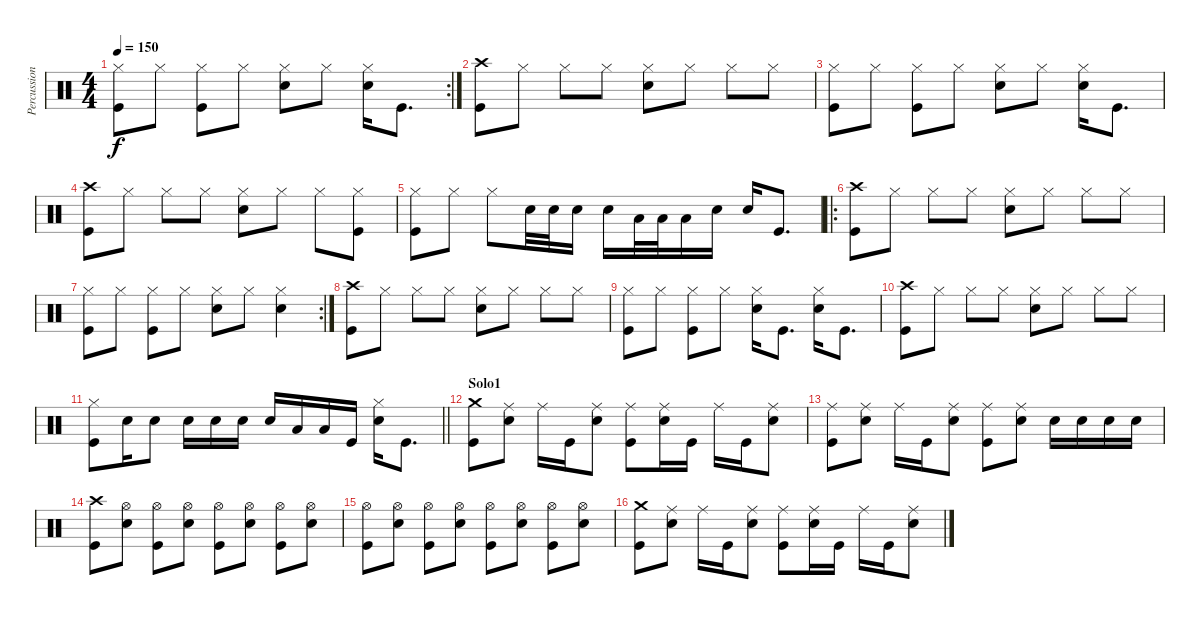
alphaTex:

\track ("Percussion" "Percussion") {instrument percussion}
\staff {score}
\articulation defaults
\rc 2
\ts (4 4)
\tempo 150
\clef neutral
\ks c
("Hi-Hat (closed)" "Kick (hit)").8{dy f} "Hi-Hat (closed)".8 ("Hi-Hat (closed)" "Kick (hit)").8 "Hi-Hat (closed)".8 ("Hi-Hat (closed)" "Snare (hit) 2").8 "Hi-Hat (closed)".8 ("Hi-Hat (closed)" "Snare (hit) 2").16 "Kick (hit)".8{d} |
("Crash high (hit)" "Kick (hit)").8 "Hi-Hat (closed)".8 "Hi-Hat (closed)".8 "Hi-Hat (closed)".8 ("Hi-Hat (closed)" "Snare (hit) 2").8 "Hi-Hat (closed)".8 "Hi-Hat (closed)".8 "Hi-Hat (closed)".8 |
("Hi-Hat (closed)" "Kick (hit)").8 "Hi-Hat (closed)".8 ("Hi-Hat (closed)" "Kick (hit)").8 "Hi-Hat (closed)".8 ("Hi-Hat (closed)" "Snare (hit) 2").8 "Hi-Hat (closed)".8 ("Hi-Hat (closed)" "Snare (hit) 2").16 "Kick (hit)".8{d} |
("Crash high (hit)" "Kick (hit)").8 "Hi-Hat (closed)".8 "Hi-Hat (closed)".8 "Hi-Hat (closed)".8 ("Hi-Hat (closed)" "Snare (hit) 2").8 "Hi-Hat (closed)".8 "Hi-Hat (closed)".8 ("Hi-Hat (closed)" "Kick (hit)").8 |
("Hi-Hat (closed)" "Kick (hit)").8 "Hi-Hat (closed)".8 "Hi-Hat (closed)".8 "Snare (hit) 2".32 "Snare (hit) 2".32 "Snare (hit) 2".16 "Snare (hit) 2".16 "Low Tom (hit)".32 "Low Tom (hit)".32 "Low Tom (hit)".16 "Snare (hit) 2".16 "Snare (hit) 2".16 "Kick (hit)".8{d} |
\ro
("Crash high (hit)" "Kick (hit)").8 "Hi-Hat (closed)".8 "Hi-Hat (closed)".8 "Hi-Hat (closed)".8 ("Hi-Hat (closed)" "Snare (hit) 2").8 "Hi-Hat (closed)".8 "Hi-Hat (closed)".8 "Hi-Hat (closed)".8 |
\rc 2
("Hi-Hat (closed)" "Kick (hit)").8 "Hi-Hat (closed)".8 ("Hi-Hat (closed)" "Kick (hit)").8 "Hi-Hat (closed)".8 ("Hi-Hat (closed)" "Snare (hit) 2").8 "Hi-Hat (closed)".8 ("Hi-Hat (closed)" "Snare (hit) 2").4 |
("Crash high (hit)" "Kick (hit)").8 "Hi-Hat (closed)".8 "Hi-Hat (closed)".8 "Hi-Hat (closed)".8 ("Hi-Hat (closed)" "Snare (hit) 2").8 "Hi-Hat (closed)".8 "Hi-Hat (closed)".8 "Hi-Hat (closed)".8 |
("Hi-Hat (closed)" "Kick (hit)").8 "Hi-Hat (closed)".8 ("Hi-Hat (closed)" "Kick (hit)").8 "Hi-Hat (closed)".8 ("Hi-Hat (closed)" "Snare (hit) 2").16 "Kick (hit)".8{d} ("Hi-Hat (closed)" "Snare (hit) 2").16 "Kick (hit)".8{d} |
("Crash high (hit)" "Kick (hit)").8 "Hi-Hat (closed)".8 "Hi-Hat (closed)".8 "Hi-Hat (closed)".8 ("Hi-Hat (closed)" "Snare (hit) 2").8 "Hi-Hat (closed)".8 "Hi-Hat (closed)".8 "Hi-Hat (closed)".8 |
\barLineRight lightlight
("Hi-Hat (closed)" "Kick (hit)").8 "Snare (hit) 2".16 "Snare (hit) 2".8 "Snare (hit) 2".16 "Snare (hit) 2".16 "Snare (hit) 2".16 "Snare (hit) 2".16 "Low Tom (hit)".16 "Low Tom (hit)".16 "Kick (hit)".16 ("Hi-Hat (closed)" "Snare (hit) 2").16 "Kick (hit)".8{d} |
\section ("" "Solo1")
("Crash medium (hit)" "Kick (hit)").8 ("Ride (middle)" "Snare (hit) 2").8 "Ride (middle)".16 "Kick (hit)".16 ("Ride (middle)" "Snare (hit) 2").8 ("Ride (middle)" "Kick (hit)").8 ("Ride (middle)" "Snare (hit) 2").16 "Kick (hit)".16 "Ride (middle)".16 "Kick (hit)".16 ("Ride (middle)" "Snare (hit) 2").8 |
("Ride (middle)" "Kick (hit)").8 ("Ride (middle)" "Snare (hit) 2").8 "Ride (middle)".16 "Kick (hit)".16 ("Ride (middle)" "Snare (hit) 2").8 ("Ride (middle)" "Kick (hit)").8 ("Ride (middle)" "Snare (hit) 2").8 "Snare (hit) 2".16 "Snare (hit) 2".16 "Snare (hit) 2".16 "Snare (hit) 2".16 |
("Crash high (hit)" "Kick (hit)").8 ("Hi-Hat (open)" "Snare (hit) 2").8 ("Hi-Hat (open)" "Kick (hit)").8 ("Hi-Hat (open)" "Snare (hit) 2").8 ("Hi-Hat (open)" "Kick (hit)").8 ("Hi-Hat (open)" "Snare (hit) 2").8 ("Hi-Hat (open)" "Kick (hit)").8 ("Hi-Hat (open)" "Snare (hit) 2").8 |
("Hi-Hat (open)" "Kick (hit)").8 ("Hi-Hat (open)" "Snare (hit) 2").8 ("Hi-Hat (open)" "Kick (hit)").8 ("Hi-Hat (open)" "Snare (hit) 2").8 ("Hi-Hat (open)" "Kick (hit)").8 ("Hi-Hat (open)" "Snare (hit) 2").8 ("Hi-Hat (open)" "Kick (hit)").8 ("Hi-Hat (open)" "Snare (hit) 2").8 |
("Crash medium (hit)" "Kick (hit)").8 ("Ride (middle)" "Snare (hit) 2").8 "Ride (middle)".16 "Kick (hit)".16 ("Ride (middle)" "Snare (hit) 2").8 ("Ride (middle)" "Kick (hit)").8 ("Ride (middle)" "Snare (hit) 2").16 "Kick (hit)".16 "Ride (middle)".16 "Kick (hit)".16 ("Ride (middle)" "Snare (hit) 2").8
